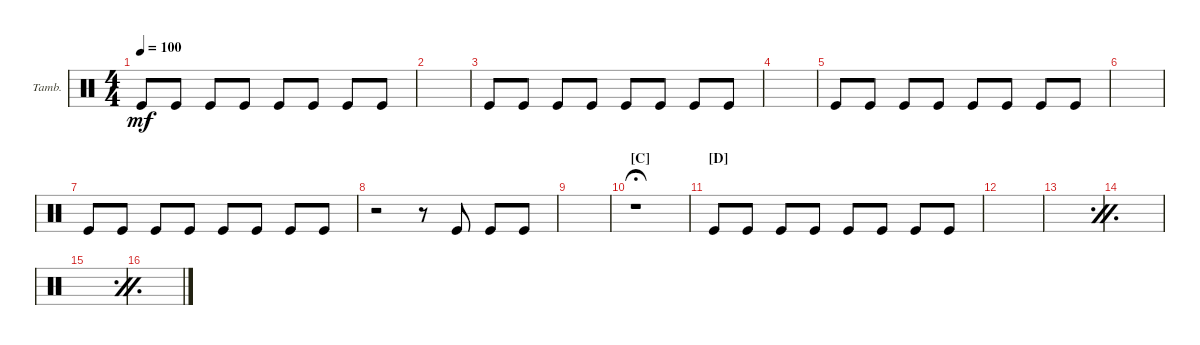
\defaultSystemsLayout 4
\bracketExtendMode groupsimilarinstruments
\firstSystemTrackNameOrientation horizontal
\otherSystemsTrackNameOrientation horizontal
\track ("Robert Plant" "Tamb.") {instrument percussion}
\staff {score}
\articulation defaults
\ts (4 4)
\tempo 100
\clef neutral
\ks c "Kick (hit)".8{dy mf} "Kick (hit)".8 "Kick (hit)".8 "Kick (hit)".8 "Kick (hit)".8 "Kick (hit)".8 "Kick (hit)".8 "Kick (hit)".8
|
|
"Kick (hit)".8 "Kick (hit)".8 "Kick (hit)".8 "Kick (hit)".8 "Kick (hit)".8 "Kick (hit)".8 "Kick (hit)".8 "Kick (hit)".8 |
|
"Kick (hit)".8 "Kick (hit)".8 "Kick (hit)".8 "Kick (hit)".8 "Kick (hit)".8 "Kick (hit)".8 "Kick (hit)".8 "Kick (hit)".8 |
|
"Kick (hit)".8 "Kick (hit)".8 "Kick (hit)".8 "Kick (hit)".8 "Kick (hit)".8 "Kick (hit)".8 "Kick (hit)".8 "Kick (hit)".8 |
r.2 r.8 "Kick (hit)".8 "Kick (hit)".8 "Kick (hit)".8 |
|
\section ("C" "")
r.1{fermata (medium 0.5)} |
\section ("D" "")
"Kick (hit)".8 "Kick (hit)".8 "Kick (hit)".8 "Kick (hit)".8 "Kick (hit)".8 "Kick (hit)".8 "Kick (hit)".8 "Kick (hit)".8 |
|
\simile firstofdouble
|
\simile secondofdouble
|
\simile firstofdouble
|
\simile secondofdouble
